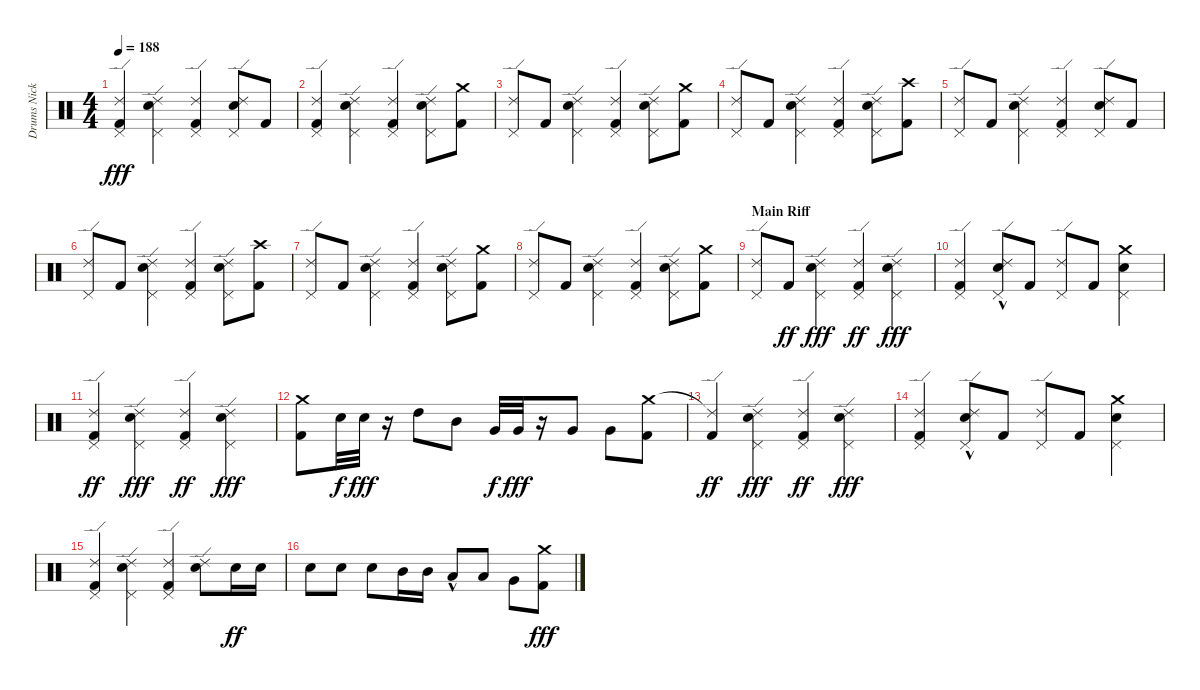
\track ("Drums Nicko McBrain" "Drums Nick") {instrument percussion}
\staff {score}
\articulation defaults
\ts (4 4)
\tempo 188
\clef neutral
\ks c
("Ride (edge) 2" "Pedal Hi-Hat (hit)" "Kick (hit) 2").4{dy fff} ("Ride (edge) 2" "Electric Snare (hit)" "Pedal Hi-Hat (hit)").4 ("Ride (edge) 2" "Pedal Hi-Hat (hit)" "Kick (hit) 2").4 ("Ride (edge) 2" "Electric Snare (hit)" "Pedal Hi-Hat (hit)").8 "Kick (hit) 2".8 |
("Ride (edge) 2" "Pedal Hi-Hat (hit)" "Kick (hit) 2").4 ("Ride (edge) 2" "Electric Snare (hit)" "Pedal Hi-Hat (hit)").4 ("Ride (edge) 2" "Pedal Hi-Hat (hit)" "Kick (hit) 2").4 ("Ride (edge) 2" "Electric Snare (hit)" "Pedal Hi-Hat (hit)").8 ("Crash medium (hit)" "Kick (hit) 2").8 |
("Ride (edge) 2" "Pedal Hi-Hat (hit)").8 "Kick (hit) 2".8 ("Ride (edge) 2" "Electric Snare (hit)" "Pedal Hi-Hat (hit)").4 ("Ride (edge) 2" "Pedal Hi-Hat (hit)" "Kick (hit) 2").4 ("Ride (edge) 2" "Electric Snare (hit)" "Pedal Hi-Hat (hit)").8 ("Crash medium (hit)" "Kick (hit) 2").8 |
("Ride (edge) 2" "Pedal Hi-Hat (hit)").8 "Kick (hit) 2".8 ("Ride (edge) 2" "Electric Snare (hit)" "Pedal Hi-Hat (hit)").4 ("Ride (edge) 2" "Pedal Hi-Hat (hit)" "Kick (hit) 2").4 ("Ride (edge) 2" "Electric Snare (hit)" "Pedal Hi-Hat (hit)").8 ("Crash high (hit)" "Kick (hit) 2").8 |
("Ride (edge) 2" "Pedal Hi-Hat (hit)").8 "Kick (hit) 2".8 ("Ride (edge) 2" "Electric Snare (hit)" "Pedal Hi-Hat (hit)").4 ("Ride (edge) 2" "Pedal Hi-Hat (hit)" "Kick (hit) 2").4 ("Ride (edge) 2" "Electric Snare (hit)" "Pedal Hi-Hat (hit)").8 "Kick (hit) 2".8 |
("Ride (edge) 2" "Pedal Hi-Hat (hit)").8 "Kick (hit) 2".8 ("Ride (edge) 2" "Electric Snare (hit)" "Pedal Hi-Hat (hit)").4 ("Ride (edge) 2" "Pedal Hi-Hat (hit)" "Kick (hit) 2").4 ("Ride (edge) 2" "Electric Snare (hit)" "Pedal Hi-Hat (hit)").8 ("Crash high (hit)" "Kick (hit) 2").8 |
("Ride (edge) 2" "Pedal Hi-Hat (hit)").8 "Kick (hit) 2".8 ("Ride (edge) 2" "Electric Snare (hit)" "Pedal Hi-Hat (hit)").4 ("Ride (edge) 2" "Pedal Hi-Hat (hit)" "Kick (hit) 2").4 ("Ride (edge) 2" "Electric Snare (hit)" "Pedal Hi-Hat (hit)").8 ("Crash medium (hit)" "Kick (hit) 2").8 |
("Ride (edge) 2" "Pedal Hi-Hat (hit)").8 "Kick (hit) 2".8 ("Ride (edge) 2" "Electric Snare (hit)" "Pedal Hi-Hat (hit)").4 ("Ride (edge) 2" "Pedal Hi-Hat (hit)" "Kick (hit) 2").4 ("Ride (edge) 2" "Electric Snare (hit)" "Pedal Hi-Hat (hit)").8 ("Crash medium (hit)" "Kick (hit) 2").8 |
\section ("" "Main Riff")
("Ride (edge) 2" "Pedal Hi-Hat (hit)").8 "Kick (hit) 2".8{dy ff} ("Ride (edge) 2" "Electric Snare (hit)" "Pedal Hi-Hat (hit)").4{dy fff} ("Ride (edge) 2" "Pedal Hi-Hat (hit)" "Kick (hit) 2").4{dy ff} ("Ride (edge) 2" "Electric Snare (hit)" "Pedal Hi-Hat (hit)").4{dy fff} |
("Ride (edge) 2" "Pedal Hi-Hat (hit)" "Kick (hit) 2").4 ("Ride (edge) 2" "Electric Snare (hit)"{hac} "Pedal Hi-Hat (hit)").8 "Kick (hit) 2".8 ("Ride (edge) 2" "Pedal Hi-Hat (hit)").8 "Kick (hit) 2".8 ("Crash medium (hit)" "Electric Snare (hit)" "Pedal Hi-Hat (hit)").4 |
("Ride (edge) 2" "Pedal Hi-Hat (hit)" "Kick (hit) 2").4{dy ff} ("Ride (edge) 2" "Electric Snare (hit)" "Pedal Hi-Hat (hit)").4{dy fff} ("Ride (edge) 2" "Pedal Hi-Hat (hit)" "Kick (hit) 2").4{dy ff} ("Ride (edge) 2" "Electric Snare (hit)" "Pedal Hi-Hat (hit)").4{dy fff} |
("Crash medium (hit)" "Kick (hit) 2").8 "Electric Snare (hit)".32{dy f} "Electric Snare (hit)".32{dy fff} r.16 "High Tom (hit)".8 "Mid Tom (hit)".8 "Very Low Tom (hit)".32{dy f} "Very Low Tom (hit)".32{dy fff} r.16 "Very Low Tom (hit)".8 "Very Low Tom (hit)".8 ("Crash medium (hit)" "Kick (hit) 2").8 |
("Ride (edge) 2"{t} "Kick (hit) 2").4{dy ff} ("Ride (edge) 2" "Electric Snare (hit)" "Pedal Hi-Hat (hit)").4{dy fff} ("Ride (edge) 2" "Pedal Hi-Hat (hit)" "Kick (hit) 2").4{dy ff} ("Ride (edge) 2" "Electric Snare (hit)" "Pedal Hi-Hat (hit)").4{dy fff} |
("Ride (edge) 2" "Pedal Hi-Hat (hit)" "Kick (hit) 2").4 ("Ride (edge) 2" "Electric Snare (hit)"{hac} "Pedal Hi-Hat (hit)").8 "Kick (hit) 2".8 ("Ride (edge) 2" "Pedal Hi-Hat (hit)").8 "Kick (hit) 2".8 ("Crash medium (hit)" "Electric Snare (hit)" "Pedal Hi-Hat (hit)").4 |
("Ride (edge) 2" "Pedal Hi-Hat (hit)" "Kick (hit) 2").4 ("Ride (edge) 2" "Electric Snare (hit)" "Pedal Hi-Hat (hit)").4 ("Ride (edge) 2" "Pedal Hi-Hat (hit)" "Kick (hit) 2").4 ("Ride (edge) 2" "Electric Snare (hit)").8 "Electric Snare (hit)".16{dy ff} "Electric Snare (hit)".16 |
"Electric Snare (hit)".8 "Electric Snare (hit)".8 "Electric Snare (hit)".8 "Mid Tom (hit)".16 "Mid Tom (hit)".16 "Low Tom (hit)"{hac}.8 "Low Tom (hit)".8 "Very Low Tom (hit)".8 ("Crash medium (hit)" "Kick (hit) 2").8{dy fff}
